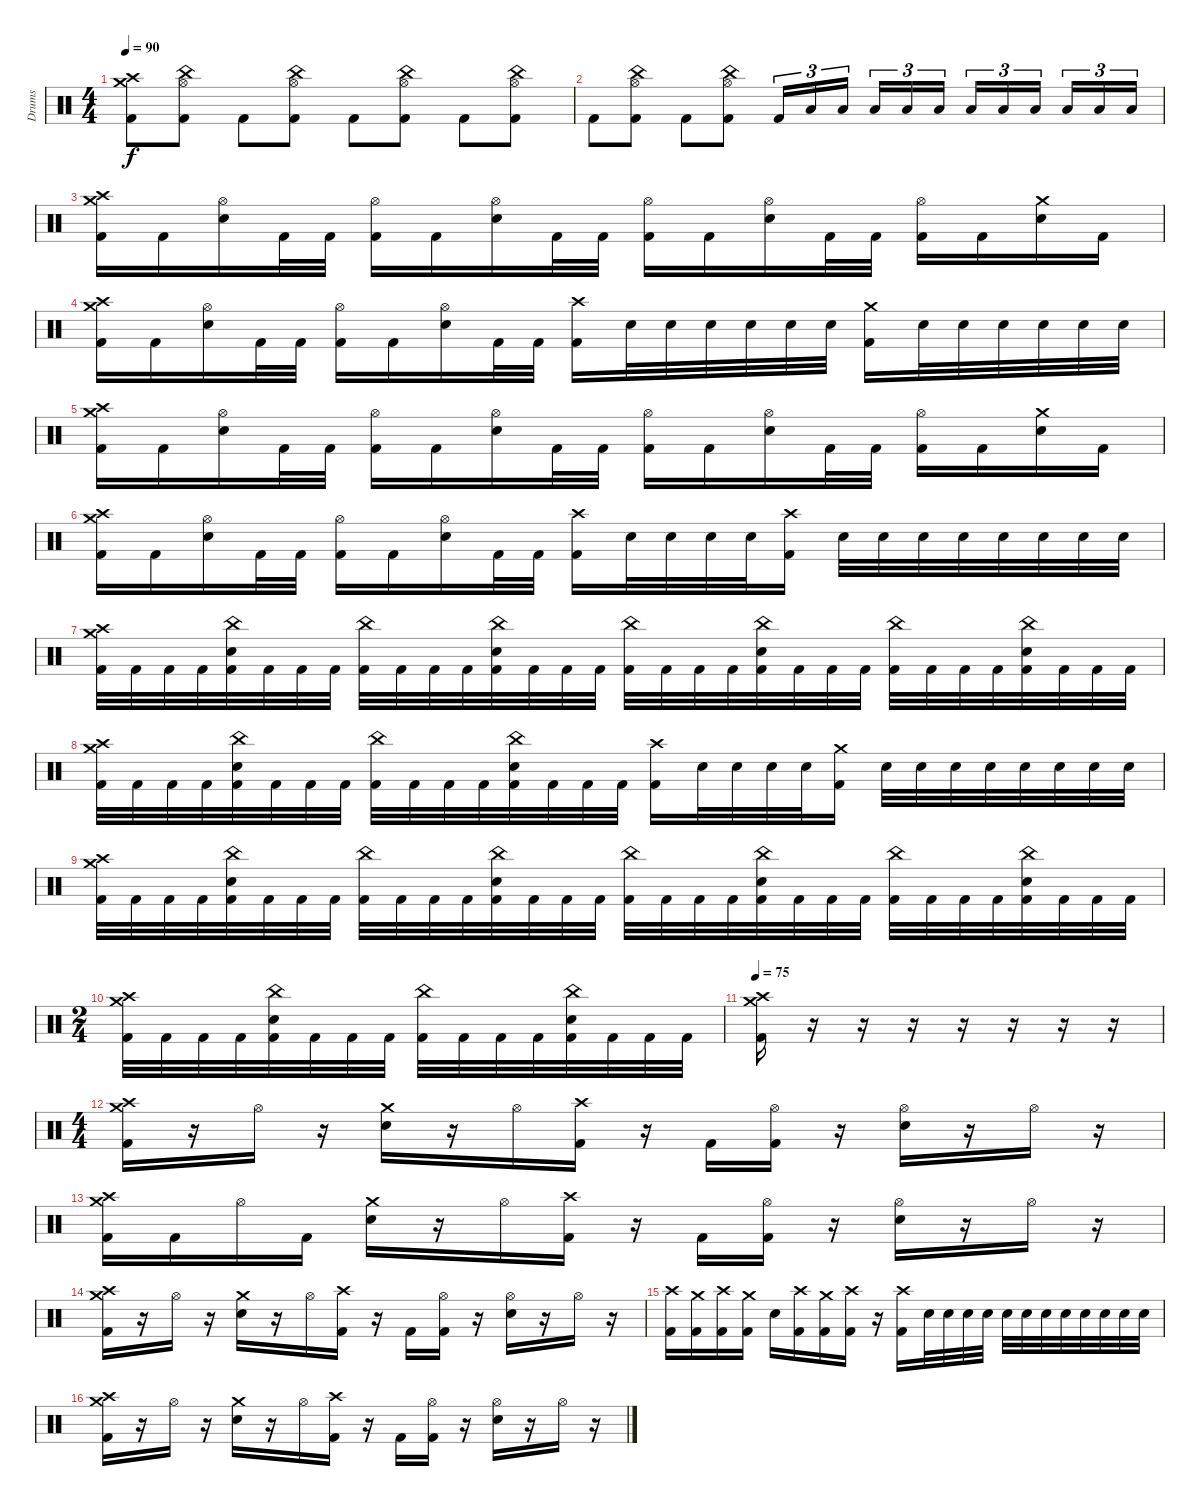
\track ("Drums" "Drums") {instrument percussion}
\staff {score}
\articulation defaults
\ts (4 4)
\tempo 90
\clef neutral
\ks c
("Crash medium (hit)" "Crash high (hit)" "Kick (hit) 2").8{dy f} ("China (hit)" "Hi-Hat (open)" "Kick (hit) 2").8 "Kick (hit) 2".8 ("China (hit)" "Hi-Hat (open)" "Kick (hit) 2").8 "Kick (hit) 2".8 ("China (hit)" "Hi-Hat (open)" "Kick (hit) 2").8 "Kick (hit) 2".8 ("China (hit)" "Hi-Hat (open)" "Kick (hit) 2").8 |
"Kick (hit) 2".8 ("China (hit)" "Hi-Hat (open)" "Kick (hit) 2").8 "Kick (hit) 2".8 ("China (hit)" "Hi-Hat (open)" "Kick (hit) 2").8 "Kick (hit) 2".16{tu (3 2)} "Low Tom (hit)".16{tu (3 2)} "Low Tom (hit)".16{tu (3 2) beam splitsecondary} "Low Tom (hit)".16{tu (3 2)} "Low Tom (hit)".16{tu (3 2)} "Low Tom (hit)".16{tu (3 2)} "Low Floor Tom (hit)".16{tu (3 2)} "Low Floor Tom (hit)".16{tu (3 2)} "Low Floor Tom (hit)".16{tu (3 2) beam splitsecondary} "Low Floor Tom (hit)".16{tu (3 2)} "Low Floor Tom (hit)".16{tu (3 2)} "Low Floor Tom (hit)".16{tu (3 2)} |
("Crash medium (hit)" "Crash high (hit)" "Kick (hit) 2").16 "Kick (hit) 2".16 ("Hi-Hat (open)" "Electric Snare (hit)").16 "Kick (hit) 2".32 "Kick (hit) 2".32 ("Hi-Hat (open)" "Kick (hit) 2").16 "Kick (hit) 2".16 ("Hi-Hat (open)" "Electric Snare (hit)").16 "Kick (hit) 2".32 "Kick (hit) 2".32 ("Hi-Hat (open)" "Kick (hit) 2").16 "Kick (hit) 2".16 ("Hi-Hat (open)" "Electric Snare (hit)").16 "Kick (hit) 2".32 "Kick (hit) 2".32 ("Hi-Hat (open)" "Kick (hit) 2").16 "Kick (hit) 2".16 ("Crash medium (hit)" "Electric Snare (hit)").16 "Kick (hit) 2".16 |
("Crash medium (hit)" "Crash high (hit)" "Kick (hit) 2").16 "Kick (hit) 2".16 ("Hi-Hat (open)" "Electric Snare (hit)").16 "Kick (hit) 2".32 "Kick (hit) 2".32 ("Hi-Hat (open)" "Kick (hit) 2").16 "Kick (hit) 2".16 ("Hi-Hat (open)" "Electric Snare (hit)").16 "Kick (hit) 2".32 "Kick (hit) 2".32 ("Crash high (hit)" "Kick (hit) 2").16 "Electric Snare (hit)".32 "Electric Snare (hit)".32 "Electric Snare (hit)".32 "Electric Snare (hit)".32 "Electric Snare (hit)".32 "Electric Snare (hit)".32 ("Crash medium (hit)" "Kick (hit) 2").16 "Electric Snare (hit)".32 "Electric Snare (hit)".32 "Electric Snare (hit)".32 "Electric Snare (hit)".32 "Electric Snare (hit)".32 "Electric Snare (hit)".32 |
("Crash medium (hit)" "Crash high (hit)" "Kick (hit) 2").16 "Kick (hit) 2".16 ("Hi-Hat (open)" "Electric Snare (hit)").16 "Kick (hit) 2".32 "Kick (hit) 2".32 ("Hi-Hat (open)" "Kick (hit) 2").16 "Kick (hit) 2".16 ("Hi-Hat (open)" "Electric Snare (hit)").16 "Kick (hit) 2".32 "Kick (hit) 2".32 ("Hi-Hat (open)" "Kick (hit) 2").16 "Kick (hit) 2".16 ("Hi-Hat (open)" "Electric Snare (hit)").16 "Kick (hit) 2".32 "Kick (hit) 2".32 ("Hi-Hat (open)" "Kick (hit) 2").16 "Kick (hit) 2".16 ("Crash medium (hit)" "Electric Snare (hit)").16 "Kick (hit) 2".16 |
("Crash medium (hit)" "Crash high (hit)" "Kick (hit) 2").16 "Kick (hit) 2".16 ("Hi-Hat (open)" "Electric Snare (hit)").16 "Kick (hit) 2".32 "Kick (hit) 2".32 ("Hi-Hat (open)" "Kick (hit) 2").16 "Kick (hit) 2".16 ("Hi-Hat (open)" "Electric Snare (hit)").16 "Kick (hit) 2".32 "Kick (hit) 2".32 ("Crash high (hit)" "Kick (hit) 2").16 "Electric Snare (hit)".32 "Electric Snare (hit)".32 "Electric Snare (hit)".32 "Electric Snare (hit)".32 ("Crash high (hit)" "Kick (hit) 2").16 "Electric Snare (hit)".32 "Electric Snare (hit)".32 "Electric Snare (hit)".32 "Electric Snare (hit)".32 "Electric Snare (hit)".32 "Electric Snare (hit)".32 "Electric Snare (hit)".32 "Electric Snare (hit)".32 |
("Crash medium (hit)" "Crash high (hit)" "Kick (hit) 2").32 "Kick (hit) 2".32 "Kick (hit) 2".32 "Kick (hit) 2".32 ("China (hit)" "Electric Snare (hit)" "Kick (hit) 2").32 "Kick (hit) 2".32 "Kick (hit) 2".32 "Kick (hit) 2".32 ("China (hit)" "Kick (hit) 2").32 "Kick (hit) 2".32 "Kick (hit) 2".32 "Kick (hit) 2".32 ("China (hit)" "Electric Snare (hit)" "Kick (hit) 2").32 "Kick (hit) 2".32 "Kick (hit) 2".32 "Kick (hit) 2".32 ("China (hit)" "Kick (hit) 2").32 "Kick (hit) 2".32 "Kick (hit) 2".32 "Kick (hit) 2".32 ("China (hit)" "Electric Snare (hit)" "Kick (hit) 2").32 "Kick (hit) 2".32 "Kick (hit) 2".32 "Kick (hit) 2".32 ("China (hit)" "Kick (hit) 2").32 "Kick (hit) 2".32 "Kick (hit) 2".32 "Kick (hit) 2".32 ("China (hit)" "Electric Snare (hit)" "Kick (hit) 2").32 "Kick (hit) 2".32 "Kick (hit) 2".32 "Kick (hit) 2".32 |
("Crash medium (hit)" "Crash high (hit)" "Kick (hit) 2").32 "Kick (hit) 2".32 "Kick (hit) 2".32 "Kick (hit) 2".32 ("China (hit)" "Electric Snare (hit)" "Kick (hit) 2").32 "Kick (hit) 2".32 "Kick (hit) 2".32 "Kick (hit) 2".32 ("China (hit)" "Kick (hit) 2").32 "Kick (hit) 2".32 "Kick (hit) 2".32 "Kick (hit) 2".32 ("China (hit)" "Electric Snare (hit)" "Kick (hit) 2").32 "Kick (hit) 2".32 "Kick (hit) 2".32 "Kick (hit) 2".32 ("Crash high (hit)" "Kick (hit) 2").16 "Electric Snare (hit)".32 "Electric Snare (hit)".32 "Electric Snare (hit)".32 "Electric Snare (hit)".32 ("Crash medium (hit)" "Kick (hit) 2").16 "Electric Snare (hit)".32 "Electric Snare (hit)".32 "Electric Snare (hit)".32 "Electric Snare (hit)".32 "Electric Snare (hit)".32 "Electric Snare (hit)".32 "Electric Snare (hit)".32 "Electric Snare (hit)".32 |
("Crash medium (hit)" "Crash high (hit)" "Kick (hit) 2").32 "Kick (hit) 2".32 "Kick (hit) 2".32 "Kick (hit) 2".32 ("China (hit)" "Electric Snare (hit)" "Kick (hit) 2").32 "Kick (hit) 2".32 "Kick (hit) 2".32 "Kick (hit) 2".32 ("China (hit)" "Kick (hit) 2").32 "Kick (hit) 2".32 "Kick (hit) 2".32 "Kick (hit) 2".32 ("China (hit)" "Electric Snare (hit)" "Kick (hit) 2").32 "Kick (hit) 2".32 "Kick (hit) 2".32 "Kick (hit) 2".32 ("China (hit)" "Kick (hit) 2").32 "Kick (hit) 2".32 "Kick (hit) 2".32 "Kick (hit) 2".32 ("China (hit)" "Electric Snare (hit)" "Kick (hit) 2").32 "Kick (hit) 2".32 "Kick (hit) 2".32 "Kick (hit) 2".32 ("China (hit)" "Kick (hit) 2").32 "Kick (hit) 2".32 "Kick (hit) 2".32 "Kick (hit) 2".32 ("China (hit)" "Electric Snare (hit)" "Kick (hit) 2").32 "Kick (hit) 2".32 "Kick (hit) 2".32 "Kick (hit) 2".32 |
\ts (2 4)
("Crash medium (hit)" "Crash high (hit)" "Kick (hit) 2").32 "Kick (hit) 2".32 "Kick (hit) 2".32 "Kick (hit) 2".32 ("China (hit)" "Electric Snare (hit)" "Kick (hit) 2").32 "Kick (hit) 2".32 "Kick (hit) 2".32 "Kick (hit) 2".32 ("China (hit)" "Kick (hit) 2").32 "Kick (hit) 2".32 "Kick (hit) 2".32 "Kick (hit) 2".32 ("China (hit)" "Electric Snare (hit)" "Kick (hit) 2").32 "Kick (hit) 2".32 "Kick (hit) 2".32 "Kick (hit) 2".32 |
\tempo 75
("Crash medium (hit)" "Crash high (hit)" "Kick (hit) 2").16 r.16{volume 0} r.16 r.16 r.16 r.16 r.16 r.16 |
\ts (4 4)
("Crash medium (hit)" "Crash high (hit)" "Kick (hit) 2").16{volume 13} r.16 "Hi-Hat (open)".16 r.16 ("Crash medium (hit)" "Electric Snare (hit)").16 r.16 "Hi-Hat (open)".16 ("Crash high (hit)" "Kick (hit) 2").16 r.16 "Kick (hit) 2".16 ("Hi-Hat (open)" "Kick (hit) 2").16 r.16 ("Hi-Hat (open)" "Electric Snare (hit)").16 r.16 "Hi-Hat (open)".16 r.16 |
("Crash medium (hit)" "Crash high (hit)" "Kick (hit) 2").16 "Kick (hit) 2".16 "Hi-Hat (open)".16 "Kick (hit) 2".16 ("Crash medium (hit)" "Electric Snare (hit)").16 r.16 "Hi-Hat (open)".16 ("Crash high (hit)" "Kick (hit) 2").16 r.16 "Kick (hit) 2".16 ("Hi-Hat (open)" "Kick (hit) 2").16 r.16 ("Hi-Hat (open)" "Electric Snare (hit)").16 r.16 "Hi-Hat (open)".16 r.16 |
("Crash medium (hit)" "Crash high (hit)" "Kick (hit) 2").16{volume 13} r.16 "Hi-Hat (open)".16 r.16 ("Crash medium (hit)" "Electric Snare (hit)").16 r.16 "Hi-Hat (open)".16 ("Crash high (hit)" "Kick (hit) 2").16 r.16 "Kick (hit) 2".16 ("Hi-Hat (open)" "Kick (hit) 2").16 r.16 ("Hi-Hat (open)" "Electric Snare (hit)").16 r.16 "Hi-Hat (open)".16 r.16 |
("Crash high (hit)" "Kick (hit) 2").16 ("Crash medium (hit)" "Kick (hit) 2").16 ("Crash high (hit)" "Kick (hit) 2").16 ("Crash medium (hit)" "Kick (hit) 2").16 "Electric Snare (hit)".16 ("Crash high (hit)" "Kick (hit) 2").16 ("Crash medium (hit)" "Kick (hit) 2").16 ("Crash high (hit)" "Kick (hit) 2").16 r.16 ("Crash high (hit)" "Kick (hit) 2").16 "Electric Snare (hit)".32 "Electric Snare (hit)".32 "Electric Snare (hit)".32 "Electric Snare (hit)".32 "Electric Snare (hit)".32 "Electric Snare (hit)".32 "Electric Snare (hit)".32 "Electric Snare (hit)".32 "Electric Snare (hit)".32 "Electric Snare (hit)".32 "Electric Snare (hit)".32 "Electric Snare (hit)".32 |
("Crash medium (hit)" "Crash high (hit)" "Kick (hit) 2").16{volume 13} r.16 "Hi-Hat (open)".16 r.16 ("Crash medium (hit)" "Electric Snare (hit)").16 r.16 "Hi-Hat (open)".16 ("Crash high (hit)" "Kick (hit) 2").16 r.16 "Kick (hit) 2".16 ("Hi-Hat (open)" "Kick (hit) 2").16 r.16 ("Hi-Hat (open)" "Electric Snare (hit)").16 r.16 "Hi-Hat (open)".16 r.16
